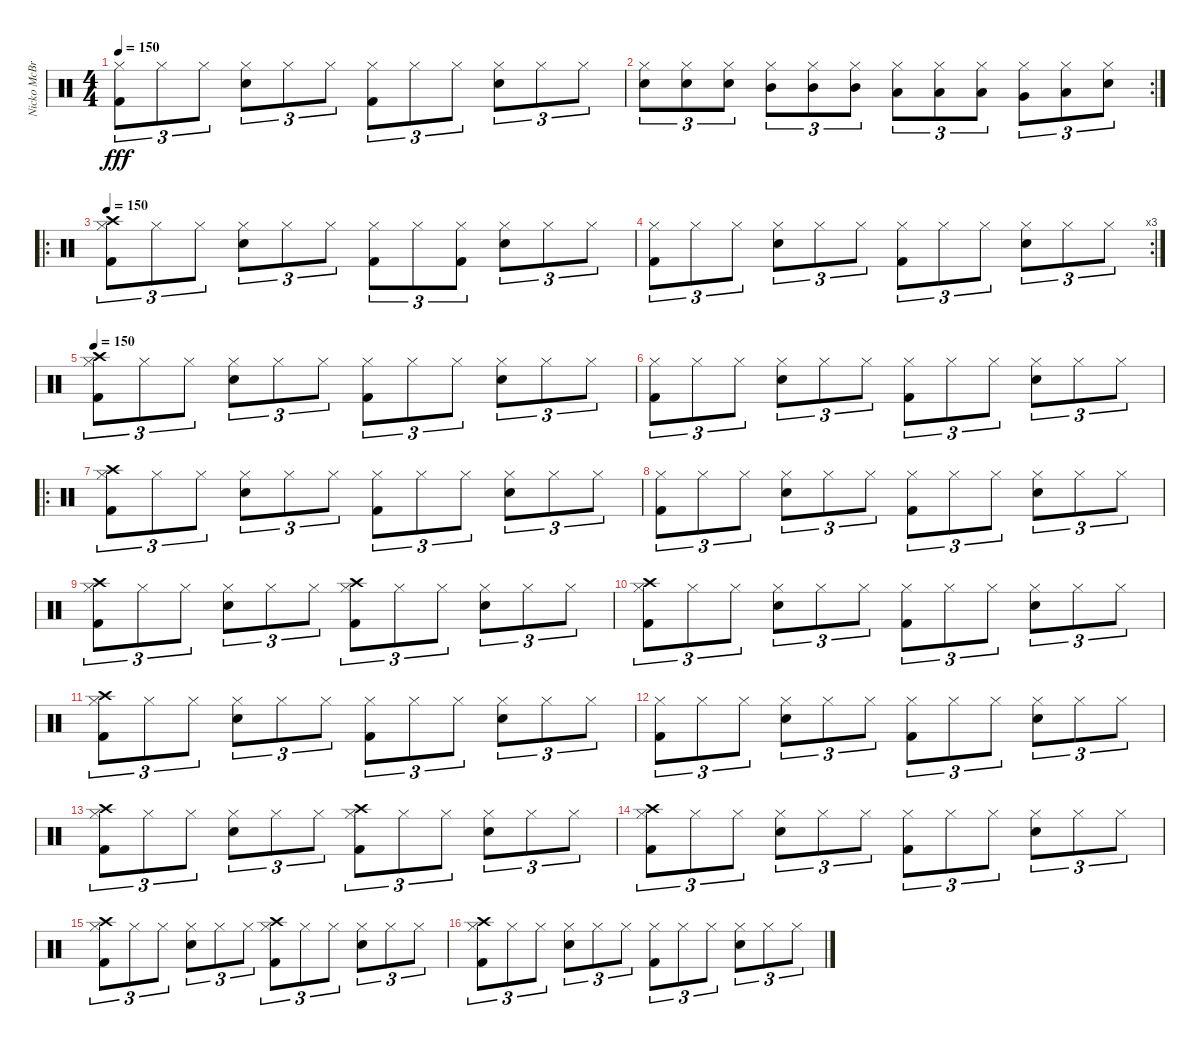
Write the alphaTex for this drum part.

\track ("Nicko McBrain" "Nicko McBr") {instrument percussion}
\staff {score}
\articulation defaults
\ts (4 4)
\tempo 150
\clef neutral
\ks c
("Hi-Hat (closed)" "Kick (hit) 2").8{tu (3 2) dy fff} "Hi-Hat (closed)".8{tu (3 2)} "Hi-Hat (closed)".8{tu (3 2)} ("Hi-Hat (closed)" "Snare (hit) 2").8{tu (3 2)} "Hi-Hat (closed)".8{tu (3 2)} "Hi-Hat (closed)".8{tu (3 2)} ("Hi-Hat (closed)" "Kick (hit) 2").8{tu (3 2)} "Hi-Hat (closed)".8{tu (3 2)} "Hi-Hat (closed)".8{tu (3 2)} ("Hi-Hat (closed)" "Snare (hit) 2").8{tu (3 2)} "Hi-Hat (closed)".8{tu (3 2)} "Hi-Hat (closed)".8{tu (3 2)} |
\rc 2
("Snare (hit) 2" "Hi-Hat (closed)").8{tu (3 2)} ("Snare (hit) 2" "Hi-Hat (closed)").8{tu (3 2)} ("Snare (hit) 2" "Hi-Hat (closed)").8{tu (3 2)} ("Mid Tom (hit)" "Hi-Hat (closed)").8{tu (3 2)} ("Mid Tom (hit)" "Hi-Hat (closed)").8{tu (3 2)} ("Mid Tom (hit)" "Hi-Hat (closed)").8{tu (3 2)} ("Low Tom (hit)" "Hi-Hat (closed)").8{tu (3 2)} ("Low Tom (hit)" "Hi-Hat (closed)").8{tu (3 2)} ("Low Tom (hit)" "Hi-Hat (closed)").8{tu (3 2)} ("Very Low Tom (hit)" "Hi-Hat (closed)").8{tu (3 2)} ("Low Floor Tom (hit)" "Hi-Hat (closed)").8{tu (3 2)} ("Electric Snare (hit)" "Hi-Hat (closed)").8{tu (3 2)} |
\ro
\tempo 150
("Hi-Hat (closed)" "Kick (hit) 2" "Crash high (hit)").8{tu (3 2)} "Hi-Hat (closed)".8{tu (3 2)} "Hi-Hat (closed)".8{tu (3 2)} ("Hi-Hat (closed)" "Snare (hit) 2").8{tu (3 2)} "Hi-Hat (closed)".8{tu (3 2)} "Hi-Hat (closed)".8{tu (3 2)} ("Hi-Hat (closed)" "Kick (hit) 2").8{tu (3 2)} "Hi-Hat (closed)".8{tu (3 2)} ("Hi-Hat (closed)" "Kick (hit) 2").8{tu (3 2)} ("Hi-Hat (closed)" "Snare (hit) 2").8{tu (3 2)} "Hi-Hat (closed)".8{tu (3 2)} "Hi-Hat (closed)".8{tu (3 2)} |
\rc 3
("Hi-Hat (closed)" "Kick (hit) 2").8{tu (3 2)} "Hi-Hat (closed)".8{tu (3 2)} "Hi-Hat (closed)".8{tu (3 2)} ("Hi-Hat (closed)" "Snare (hit) 2").8{tu (3 2)} "Hi-Hat (closed)".8{tu (3 2)} "Hi-Hat (closed)".8{tu (3 2)} ("Hi-Hat (closed)" "Kick (hit) 2").8{tu (3 2)} "Hi-Hat (closed)".8{tu (3 2)} "Hi-Hat (closed)".8{tu (3 2)} ("Hi-Hat (closed)" "Snare (hit) 2").8{tu (3 2)} "Hi-Hat (closed)".8{tu (3 2)} "Hi-Hat (closed)".8{tu (3 2)} |
\tempo 150
("Hi-Hat (closed)" "Kick (hit) 2" "Crash high (hit)").8{tu (3 2)} "Hi-Hat (closed)".8{tu (3 2)} "Hi-Hat (closed)".8{tu (3 2)} ("Hi-Hat (closed)" "Snare (hit) 2").8{tu (3 2)} "Hi-Hat (closed)".8{tu (3 2)} "Hi-Hat (closed)".8{tu (3 2)} ("Hi-Hat (closed)" "Kick (hit) 2").8{tu (3 2)} "Hi-Hat (closed)".8{tu (3 2)} "Hi-Hat (closed)".8{tu (3 2)} ("Hi-Hat (closed)" "Snare (hit) 2").8{tu (3 2)} "Hi-Hat (closed)".8{tu (3 2)} "Hi-Hat (closed)".8{tu (3 2)} |
("Hi-Hat (closed)" "Kick (hit) 2").8{tu (3 2)} "Hi-Hat (closed)".8{tu (3 2)} "Hi-Hat (closed)".8{tu (3 2)} ("Hi-Hat (closed)" "Snare (hit) 2").8{tu (3 2)} "Hi-Hat (closed)".8{tu (3 2)} "Hi-Hat (closed)".8{tu (3 2)} ("Hi-Hat (closed)" "Kick (hit) 2").8{tu (3 2)} "Hi-Hat (closed)".8{tu (3 2)} "Hi-Hat (closed)".8{tu (3 2)} ("Hi-Hat (closed)" "Snare (hit) 2").8{tu (3 2)} "Hi-Hat (closed)".8{tu (3 2)} "Hi-Hat (closed)".8{tu (3 2)} |
\ro
("Hi-Hat (closed)" "Kick (hit) 2" "Crash high (hit)").8{tu (3 2)} "Hi-Hat (closed)".8{tu (3 2)} "Hi-Hat (closed)".8{tu (3 2)} ("Hi-Hat (closed)" "Snare (hit) 2").8{tu (3 2)} "Hi-Hat (closed)".8{tu (3 2)} "Hi-Hat (closed)".8{tu (3 2)} ("Hi-Hat (closed)" "Kick (hit) 2").8{tu (3 2)} "Hi-Hat (closed)".8{tu (3 2)} "Hi-Hat (closed)".8{tu (3 2)} ("Hi-Hat (closed)" "Snare (hit) 2").8{tu (3 2)} "Hi-Hat (closed)".8{tu (3 2)} "Hi-Hat (closed)".8{tu (3 2)} |
("Hi-Hat (closed)" "Kick (hit) 2").8{tu (3 2)} "Hi-Hat (closed)".8{tu (3 2)} "Hi-Hat (closed)".8{tu (3 2)} ("Hi-Hat (closed)" "Snare (hit) 2").8{tu (3 2)} "Hi-Hat (closed)".8{tu (3 2)} "Hi-Hat (closed)".8{tu (3 2)} ("Hi-Hat (closed)" "Kick (hit) 2").8{tu (3 2)} "Hi-Hat (closed)".8{tu (3 2)} "Hi-Hat (closed)".8{tu (3 2)} ("Hi-Hat (closed)" "Snare (hit) 2").8{tu (3 2)} "Hi-Hat (closed)".8{tu (3 2)} "Hi-Hat (closed)".8{tu (3 2)} |
("Hi-Hat (closed)" "Kick (hit) 2" "Crash high (hit)").8{tu (3 2)} "Hi-Hat (closed)".8{tu (3 2)} "Hi-Hat (closed)".8{tu (3 2)} ("Hi-Hat (closed)" "Snare (hit) 2").8{tu (3 2)} "Hi-Hat (closed)".8{tu (3 2)} "Hi-Hat (closed)".8{tu (3 2)} ("Hi-Hat (closed)" "Kick (hit) 2" "Crash high (hit)").8{tu (3 2)} "Hi-Hat (closed)".8{tu (3 2)} "Hi-Hat (closed)".8{tu (3 2)} ("Hi-Hat (closed)" "Snare (hit) 2").8{tu (3 2)} "Hi-Hat (closed)".8{tu (3 2)} "Hi-Hat (closed)".8{tu (3 2)} |
("Hi-Hat (closed)" "Kick (hit) 2" "Crash high (hit)").8{tu (3 2)} "Hi-Hat (closed)".8{tu (3 2)} "Hi-Hat (closed)".8{tu (3 2)} ("Hi-Hat (closed)" "Snare (hit) 2").8{tu (3 2)} "Hi-Hat (closed)".8{tu (3 2)} "Hi-Hat (closed)".8{tu (3 2)} ("Hi-Hat (closed)" "Kick (hit) 2").8{tu (3 2)} "Hi-Hat (closed)".8{tu (3 2)} "Hi-Hat (closed)".8{tu (3 2)} ("Hi-Hat (closed)" "Snare (hit) 2").8{tu (3 2)} "Hi-Hat (closed)".8{tu (3 2)} "Hi-Hat (closed)".8{tu (3 2)} |
("Hi-Hat (closed)" "Kick (hit) 2" "Crash high (hit)").8{tu (3 2)} "Hi-Hat (closed)".8{tu (3 2)} "Hi-Hat (closed)".8{tu (3 2)} ("Hi-Hat (closed)" "Snare (hit) 2").8{tu (3 2)} "Hi-Hat (closed)".8{tu (3 2)} "Hi-Hat (closed)".8{tu (3 2)} ("Hi-Hat (closed)" "Kick (hit) 2").8{tu (3 2)} "Hi-Hat (closed)".8{tu (3 2)} "Hi-Hat (closed)".8{tu (3 2)} ("Hi-Hat (closed)" "Snare (hit) 2").8{tu (3 2)} "Hi-Hat (closed)".8{tu (3 2)} "Hi-Hat (closed)".8{tu (3 2)} |
("Hi-Hat (closed)" "Kick (hit) 2").8{tu (3 2)} "Hi-Hat (closed)".8{tu (3 2)} "Hi-Hat (closed)".8{tu (3 2)} ("Hi-Hat (closed)" "Snare (hit) 2").8{tu (3 2)} "Hi-Hat (closed)".8{tu (3 2)} "Hi-Hat (closed)".8{tu (3 2)} ("Hi-Hat (closed)" "Kick (hit) 2").8{tu (3 2)} "Hi-Hat (closed)".8{tu (3 2)} "Hi-Hat (closed)".8{tu (3 2)} ("Hi-Hat (closed)" "Snare (hit) 2").8{tu (3 2)} "Hi-Hat (closed)".8{tu (3 2)} "Hi-Hat (closed)".8{tu (3 2)} |
("Hi-Hat (closed)" "Kick (hit) 2" "Crash high (hit)").8{tu (3 2)} "Hi-Hat (closed)".8{tu (3 2)} "Hi-Hat (closed)".8{tu (3 2)} ("Hi-Hat (closed)" "Snare (hit) 2").8{tu (3 2)} "Hi-Hat (closed)".8{tu (3 2)} "Hi-Hat (closed)".8{tu (3 2)} ("Hi-Hat (closed)" "Kick (hit) 2" "Crash high (hit)").8{tu (3 2)} "Hi-Hat (closed)".8{tu (3 2)} "Hi-Hat (closed)".8{tu (3 2)} ("Hi-Hat (closed)" "Snare (hit) 2").8{tu (3 2)} "Hi-Hat (closed)".8{tu (3 2)} "Hi-Hat (closed)".8{tu (3 2)} |
("Hi-Hat (closed)" "Kick (hit) 2" "Crash high (hit)").8{tu (3 2)} "Hi-Hat (closed)".8{tu (3 2)} "Hi-Hat (closed)".8{tu (3 2)} ("Hi-Hat (closed)" "Snare (hit) 2").8{tu (3 2)} "Hi-Hat (closed)".8{tu (3 2)} "Hi-Hat (closed)".8{tu (3 2)} ("Hi-Hat (closed)" "Kick (hit) 2").8{tu (3 2)} "Hi-Hat (closed)".8{tu (3 2)} "Hi-Hat (closed)".8{tu (3 2)} ("Hi-Hat (closed)" "Snare (hit) 2").8{tu (3 2)} "Hi-Hat (closed)".8{tu (3 2)} "Hi-Hat (closed)".8{tu (3 2)} |
("Hi-Hat (closed)" "Kick (hit) 2" "Crash high (hit)").8{tu (3 2)} "Hi-Hat (closed)".8{tu (3 2)} "Hi-Hat (closed)".8{tu (3 2)} ("Hi-Hat (closed)" "Snare (hit) 2").8{tu (3 2)} "Hi-Hat (closed)".8{tu (3 2)} "Hi-Hat (closed)".8{tu (3 2)} ("Hi-Hat (closed)" "Kick (hit) 2" "Crash high (hit)").8{tu (3 2)} "Hi-Hat (closed)".8{tu (3 2)} "Hi-Hat (closed)".8{tu (3 2)} ("Hi-Hat (closed)" "Snare (hit) 2").8{tu (3 2)} "Hi-Hat (closed)".8{tu (3 2)} "Hi-Hat (closed)".8{tu (3 2)} |
("Hi-Hat (closed)" "Kick (hit) 2" "Crash high (hit)").8{tu (3 2)} "Hi-Hat (closed)".8{tu (3 2)} "Hi-Hat (closed)".8{tu (3 2)} ("Hi-Hat (closed)" "Snare (hit) 2").8{tu (3 2)} "Hi-Hat (closed)".8{tu (3 2)} "Hi-Hat (closed)".8{tu (3 2)} ("Hi-Hat (closed)" "Kick (hit) 2").8{tu (3 2)} "Hi-Hat (closed)".8{tu (3 2)} "Hi-Hat (closed)".8{tu (3 2)} ("Hi-Hat (closed)" "Snare (hit) 2").8{tu (3 2)} "Hi-Hat (closed)".8{tu (3 2)} "Hi-Hat (closed)".8{tu (3 2)}
